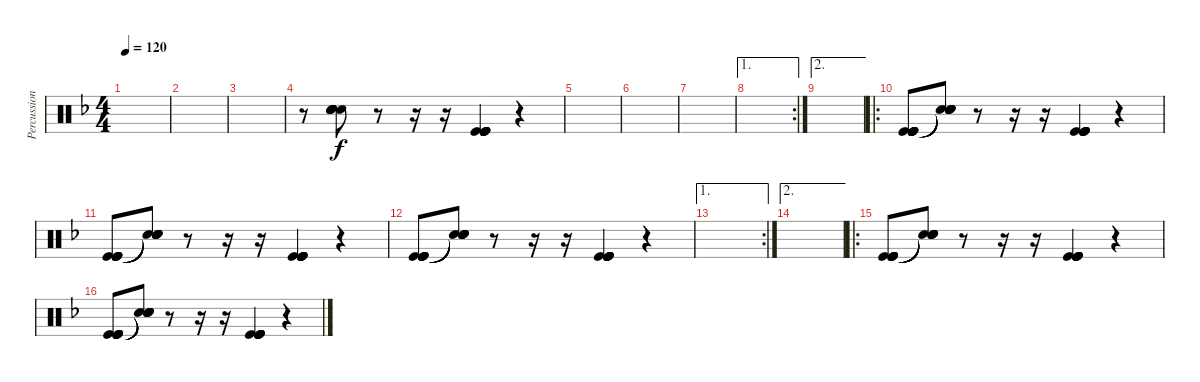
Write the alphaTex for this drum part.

\track ("Percussion" "Percussion") {instrument percussion}
\staff {score}
\articulation defaults
\ts (4 4)
\tempo 120
\clef neutral
\ks f
|
|
|
r.8 ("Snare (hit)" "Snare (hit)" "Snare (hit)" "Snare (hit)" "Snare (hit)" "Snare (hit)").8 r.8 r.16 r.16 ("Kick (hit)" "Kick (hit)" "Kick (hit)" "Kick (hit)" "Kick (hit)" "Kick (hit)").4 r.4 |
|
|
|
\ae 1
\rc 2
|
\ae 2
|
\ro
("Kick (hit)" "Kick (hit)" "Kick (hit)" "Kick (hit)" "Kick (hit)" "Kick (hit)").8 ("Snare (hit)"{t} "Snare (hit)"{t} "Snare (hit)"{t} "Snare (hit)"{t} "Snare (hit)"{t} "Snare (hit)"{t}).8 r.8 r.16 r.16 ("Kick (hit)" "Kick (hit)" "Kick (hit)" "Kick (hit)" "Kick (hit)" "Kick (hit)").4 r.4 |
("Kick (hit)" "Kick (hit)" "Kick (hit)" "Kick (hit)" "Kick (hit)" "Kick (hit)").8 ("Snare (hit)"{t} "Snare (hit)"{t} "Snare (hit)"{t} "Snare (hit)"{t} "Snare (hit)"{t} "Snare (hit)"{t}).8 r.8 r.16 r.16 ("Kick (hit)" "Kick (hit)" "Kick (hit)" "Kick (hit)" "Kick (hit)" "Kick (hit)").4 r.4 |
("Kick (hit)" "Kick (hit)" "Kick (hit)" "Kick (hit)" "Kick (hit)" "Kick (hit)").8 ("Snare (hit)"{t} "Snare (hit)"{t} "Snare (hit)"{t} "Snare (hit)"{t} "Snare (hit)"{t} "Snare (hit)"{t}).8 r.8 r.16 r.16 ("Kick (hit)" "Kick (hit)" "Kick (hit)" "Kick (hit)" "Kick (hit)" "Kick (hit)").4 r.4 |
\ae 1
\rc 2
|
\ae 2
|
\ro
("Kick (hit)" "Kick (hit)" "Kick (hit)" "Kick (hit)" "Kick (hit)" "Kick (hit)").8 ("Snare (hit)"{t} "Snare (hit)"{t} "Snare (hit)"{t} "Snare (hit)"{t} "Snare (hit)"{t} "Snare (hit)"{t}).8 r.8 r.16 r.16 ("Kick (hit)" "Kick (hit)" "Kick (hit)" "Kick (hit)" "Kick (hit)" "Kick (hit)").4 r.4 |
("Kick (hit)" "Kick (hit)" "Kick (hit)" "Kick (hit)" "Kick (hit)" "Kick (hit)").8 ("Snare (hit)"{t} "Snare (hit)"{t} "Snare (hit)"{t} "Snare (hit)"{t} "Snare (hit)"{t} "Snare (hit)"{t}).8 r.8 r.16 r.16 ("Kick (hit)" "Kick (hit)" "Kick (hit)" "Kick (hit)" "Kick (hit)" "Kick (hit)").4 r.4
